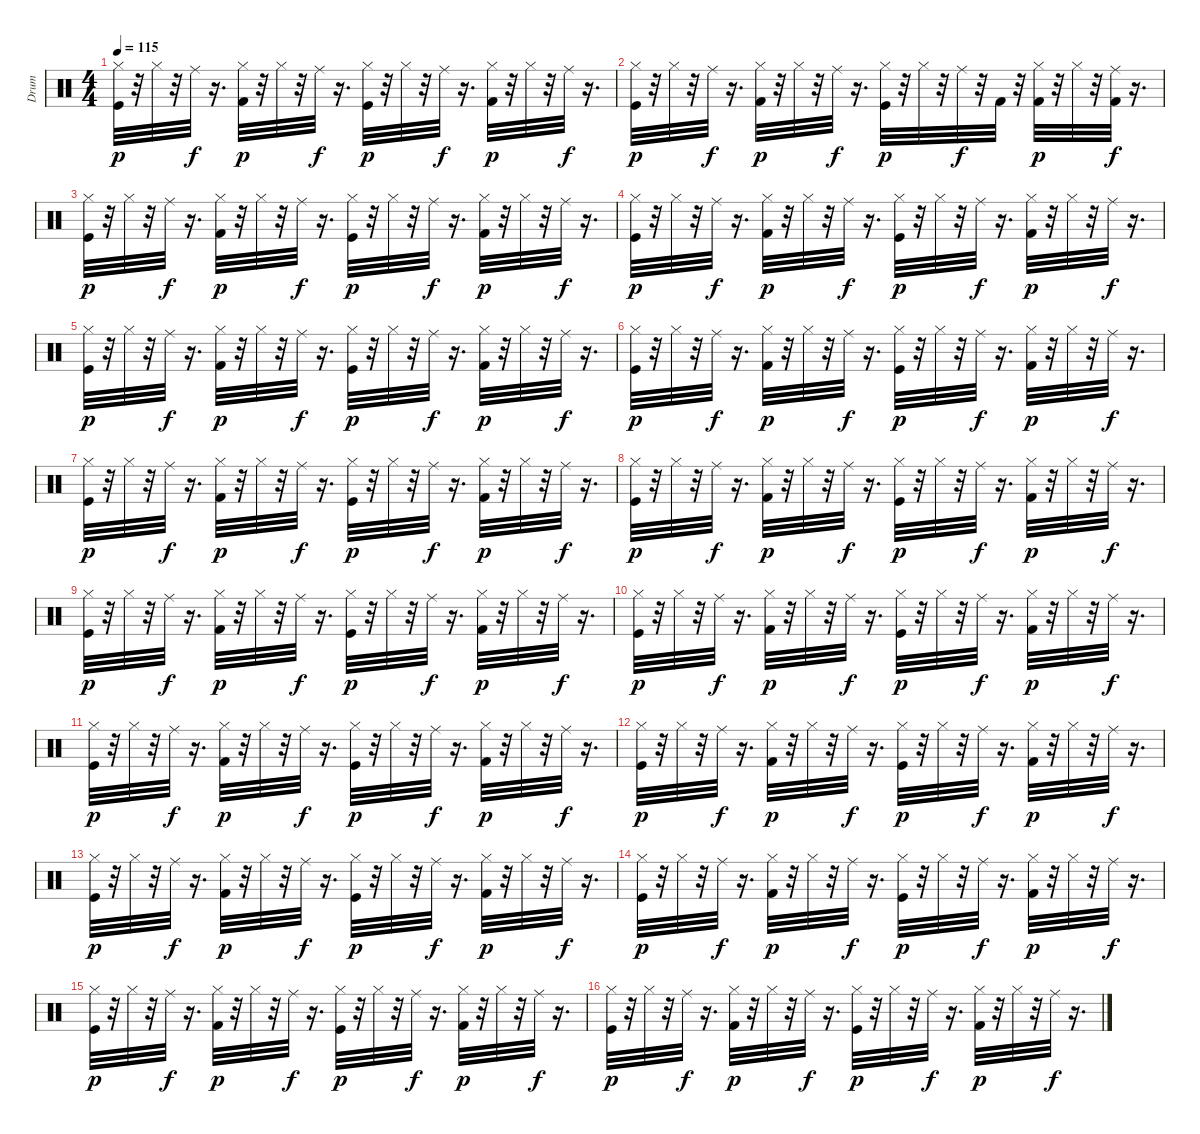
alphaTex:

\track ("Drum" "Drum") {instrument percussion}
\staff {score}
\articulation defaults
\ts (4 4)
\tempo 115
\clef neutral
\ks c
("Hi-Hat (closed)" "Kick (hit)").32{dy p} r.32 "Hi-Hat (closed)".32 r.32 "Ride (middle)".32{dy f} r.16{d} ("Hi-Hat (closed)" "Kick (hit) 2").32{dy p} r.32 "Hi-Hat (closed)".32 r.32 "Ride (middle)".32{dy f} r.16{d} ("Hi-Hat (closed)" "Kick (hit)").32{dy p} r.32 "Hi-Hat (closed)".32 r.32 "Ride (middle)".32{dy f} r.16{d} ("Hi-Hat (closed)" "Kick (hit) 2").32{dy p} r.32 "Hi-Hat (closed)".32 r.32 "Ride (middle)".32{dy f} r.16{d} |
("Hi-Hat (closed)" "Kick (hit)").32{dy p} r.32 "Hi-Hat (closed)".32 r.32 "Ride (middle)".32{dy f} r.16{d} ("Hi-Hat (closed)" "Kick (hit) 2").32{dy p} r.32 "Hi-Hat (closed)".32 r.32 "Ride (middle)".32{dy f} r.16{d} ("Hi-Hat (closed)" "Kick (hit)").32{dy p} r.32 "Hi-Hat (closed)".32 r.32 "Ride (middle)".32{dy f} r.32 "Kick (hit) 2".32 r.32 ("Hi-Hat (closed)" "Kick (hit) 2").32{dy p} r.32 "Hi-Hat (closed)".32 r.32 ("Kick (hit) 2" "Ride (middle)").32{dy f} r.16{d} |
("Hi-Hat (closed)" "Kick (hit)").32{dy p} r.32 "Hi-Hat (closed)".32 r.32 "Ride (middle)".32{dy f} r.16{d} ("Hi-Hat (closed)" "Kick (hit) 2").32{dy p} r.32 "Hi-Hat (closed)".32 r.32 "Ride (middle)".32{dy f} r.16{d} ("Hi-Hat (closed)" "Kick (hit)").32{dy p} r.32 "Hi-Hat (closed)".32 r.32 "Ride (middle)".32{dy f} r.16{d} ("Hi-Hat (closed)" "Kick (hit) 2").32{dy p} r.32 "Hi-Hat (closed)".32 r.32 "Ride (middle)".32{dy f} r.16{d} |
("Hi-Hat (closed)" "Kick (hit)").32{dy p} r.32 "Hi-Hat (closed)".32 r.32 "Ride (middle)".32{dy f} r.16{d} ("Hi-Hat (closed)" "Kick (hit) 2").32{dy p} r.32 "Hi-Hat (closed)".32 r.32 "Ride (middle)".32{dy f} r.16{d} ("Hi-Hat (closed)" "Kick (hit)").32{dy p} r.32 "Hi-Hat (closed)".32 r.32 "Ride (middle)".32{dy f} r.16{d} ("Hi-Hat (closed)" "Kick (hit) 2").32{dy p} r.32 "Hi-Hat (closed)".32 r.32 "Ride (middle)".32{dy f} r.16{d} |
("Hi-Hat (closed)" "Kick (hit)").32{dy p} r.32 "Hi-Hat (closed)".32 r.32 "Ride (middle)".32{dy f} r.16{d} ("Hi-Hat (closed)" "Kick (hit) 2").32{dy p} r.32 "Hi-Hat (closed)".32 r.32 "Ride (middle)".32{dy f} r.16{d} ("Hi-Hat (closed)" "Kick (hit)").32{dy p} r.32 "Hi-Hat (closed)".32 r.32 "Ride (middle)".32{dy f} r.16{d} ("Hi-Hat (closed)" "Kick (hit) 2").32{dy p} r.32 "Hi-Hat (closed)".32 r.32 "Ride (middle)".32{dy f} r.16{d} |
("Hi-Hat (closed)" "Kick (hit)").32{dy p} r.32 "Hi-Hat (closed)".32 r.32 "Ride (middle)".32{dy f} r.16{d} ("Hi-Hat (closed)" "Kick (hit) 2").32{dy p} r.32 "Hi-Hat (closed)".32 r.32 "Ride (middle)".32{dy f} r.16{d} ("Hi-Hat (closed)" "Kick (hit)").32{dy p} r.32 "Hi-Hat (closed)".32 r.32 "Ride (middle)".32{dy f} r.16{d} ("Hi-Hat (closed)" "Kick (hit) 2").32{dy p} r.32 "Hi-Hat (closed)".32 r.32 "Ride (middle)".32{dy f} r.16{d} |
("Hi-Hat (closed)" "Kick (hit)").32{dy p} r.32 "Hi-Hat (closed)".32 r.32 "Ride (middle)".32{dy f} r.16{d} ("Hi-Hat (closed)" "Kick (hit) 2").32{dy p} r.32 "Hi-Hat (closed)".32 r.32 "Ride (middle)".32{dy f} r.16{d} ("Hi-Hat (closed)" "Kick (hit)").32{dy p} r.32 "Hi-Hat (closed)".32 r.32 "Ride (middle)".32{dy f} r.16{d} ("Hi-Hat (closed)" "Kick (hit) 2").32{dy p} r.32 "Hi-Hat (closed)".32 r.32 "Ride (middle)".32{dy f} r.16{d} |
("Hi-Hat (closed)" "Kick (hit)").32{dy p} r.32 "Hi-Hat (closed)".32 r.32 "Ride (middle)".32{dy f} r.16{d} ("Hi-Hat (closed)" "Kick (hit) 2").32{dy p} r.32 "Hi-Hat (closed)".32 r.32 "Ride (middle)".32{dy f} r.16{d} ("Hi-Hat (closed)" "Kick (hit)").32{dy p} r.32 "Hi-Hat (closed)".32 r.32 "Ride (middle)".32{dy f} r.16{d} ("Hi-Hat (closed)" "Kick (hit) 2").32{dy p} r.32 "Hi-Hat (closed)".32 r.32 "Ride (middle)".32{dy f} r.16{d} |
("Hi-Hat (closed)" "Kick (hit)").32{dy p} r.32 "Hi-Hat (closed)".32 r.32 "Ride (middle)".32{dy f} r.16{d} ("Hi-Hat (closed)" "Kick (hit) 2").32{dy p} r.32 "Hi-Hat (closed)".32 r.32 "Ride (middle)".32{dy f} r.16{d} ("Hi-Hat (closed)" "Kick (hit)").32{dy p} r.32 "Hi-Hat (closed)".32 r.32 "Ride (middle)".32{dy f} r.16{d} ("Hi-Hat (closed)" "Kick (hit) 2").32{dy p} r.32 "Hi-Hat (closed)".32 r.32 "Ride (middle)".32{dy f} r.16{d} |
("Hi-Hat (closed)" "Kick (hit)").32{dy p} r.32 "Hi-Hat (closed)".32 r.32 "Ride (middle)".32{dy f} r.16{d} ("Hi-Hat (closed)" "Kick (hit) 2").32{dy p} r.32 "Hi-Hat (closed)".32 r.32 "Ride (middle)".32{dy f} r.16{d} ("Hi-Hat (closed)" "Kick (hit)").32{dy p} r.32 "Hi-Hat (closed)".32 r.32 "Ride (middle)".32{dy f} r.16{d} ("Hi-Hat (closed)" "Kick (hit) 2").32{dy p} r.32 "Hi-Hat (closed)".32 r.32 "Ride (middle)".32{dy f} r.16{d} |
("Hi-Hat (closed)" "Kick (hit)").32{dy p} r.32 "Hi-Hat (closed)".32 r.32 "Ride (middle)".32{dy f} r.16{d} ("Hi-Hat (closed)" "Kick (hit) 2").32{dy p} r.32 "Hi-Hat (closed)".32 r.32 "Ride (middle)".32{dy f} r.16{d} ("Hi-Hat (closed)" "Kick (hit)").32{dy p} r.32 "Hi-Hat (closed)".32 r.32 "Ride (middle)".32{dy f} r.16{d} ("Hi-Hat (closed)" "Kick (hit) 2").32{dy p} r.32 "Hi-Hat (closed)".32 r.32 "Ride (middle)".32{dy f} r.16{d} |
("Hi-Hat (closed)" "Kick (hit)").32{dy p} r.32 "Hi-Hat (closed)".32 r.32 "Ride (middle)".32{dy f} r.16{d} ("Hi-Hat (closed)" "Kick (hit) 2").32{dy p} r.32 "Hi-Hat (closed)".32 r.32 "Ride (middle)".32{dy f} r.16{d} ("Hi-Hat (closed)" "Kick (hit)").32{dy p} r.32 "Hi-Hat (closed)".32 r.32 "Ride (middle)".32{dy f} r.16{d} ("Hi-Hat (closed)" "Kick (hit) 2").32{dy p} r.32 "Hi-Hat (closed)".32 r.32 "Ride (middle)".32{dy f} r.16{d} |
("Hi-Hat (closed)" "Kick (hit)").32{dy p} r.32 "Hi-Hat (closed)".32 r.32 "Ride (middle)".32{dy f} r.16{d} ("Hi-Hat (closed)" "Kick (hit) 2").32{dy p} r.32 "Hi-Hat (closed)".32 r.32 "Ride (middle)".32{dy f} r.16{d} ("Hi-Hat (closed)" "Kick (hit)").32{dy p} r.32 "Hi-Hat (closed)".32 r.32 "Ride (middle)".32{dy f} r.16{d} ("Hi-Hat (closed)" "Kick (hit) 2").32{dy p} r.32 "Hi-Hat (closed)".32 r.32 "Ride (middle)".32{dy f} r.16{d} |
("Hi-Hat (closed)" "Kick (hit)").32{dy p} r.32 "Hi-Hat (closed)".32 r.32 "Ride (middle)".32{dy f} r.16{d} ("Hi-Hat (closed)" "Kick (hit) 2").32{dy p} r.32 "Hi-Hat (closed)".32 r.32 "Ride (middle)".32{dy f} r.16{d} ("Hi-Hat (closed)" "Kick (hit)").32{dy p} r.32 "Hi-Hat (closed)".32 r.32 "Ride (middle)".32{dy f} r.16{d} ("Hi-Hat (closed)" "Kick (hit) 2").32{dy p} r.32 "Hi-Hat (closed)".32 r.32 "Ride (middle)".32{dy f} r.16{d} |
("Hi-Hat (closed)" "Kick (hit)").32{dy p} r.32 "Hi-Hat (closed)".32 r.32 "Ride (middle)".32{dy f} r.16{d} ("Hi-Hat (closed)" "Kick (hit) 2").32{dy p} r.32 "Hi-Hat (closed)".32 r.32 "Ride (middle)".32{dy f} r.16{d} ("Hi-Hat (closed)" "Kick (hit)").32{dy p} r.32 "Hi-Hat (closed)".32 r.32 "Ride (middle)".32{dy f} r.16{d} ("Hi-Hat (closed)" "Kick (hit) 2").32{dy p} r.32 "Hi-Hat (closed)".32 r.32 "Ride (middle)".32{dy f} r.16{d} |
("Hi-Hat (closed)" "Kick (hit)").32{dy p} r.32 "Hi-Hat (closed)".32 r.32 "Ride (middle)".32{dy f} r.16{d} ("Hi-Hat (closed)" "Kick (hit) 2").32{dy p} r.32 "Hi-Hat (closed)".32 r.32 "Ride (middle)".32{dy f} r.16{d} ("Hi-Hat (closed)" "Kick (hit)").32{dy p} r.32 "Hi-Hat (closed)".32 r.32 "Ride (middle)".32{dy f} r.16{d} ("Hi-Hat (closed)" "Kick (hit) 2").32{dy p} r.32 "Hi-Hat (closed)".32 r.32 "Ride (middle)".32{dy f} r.16{d}
